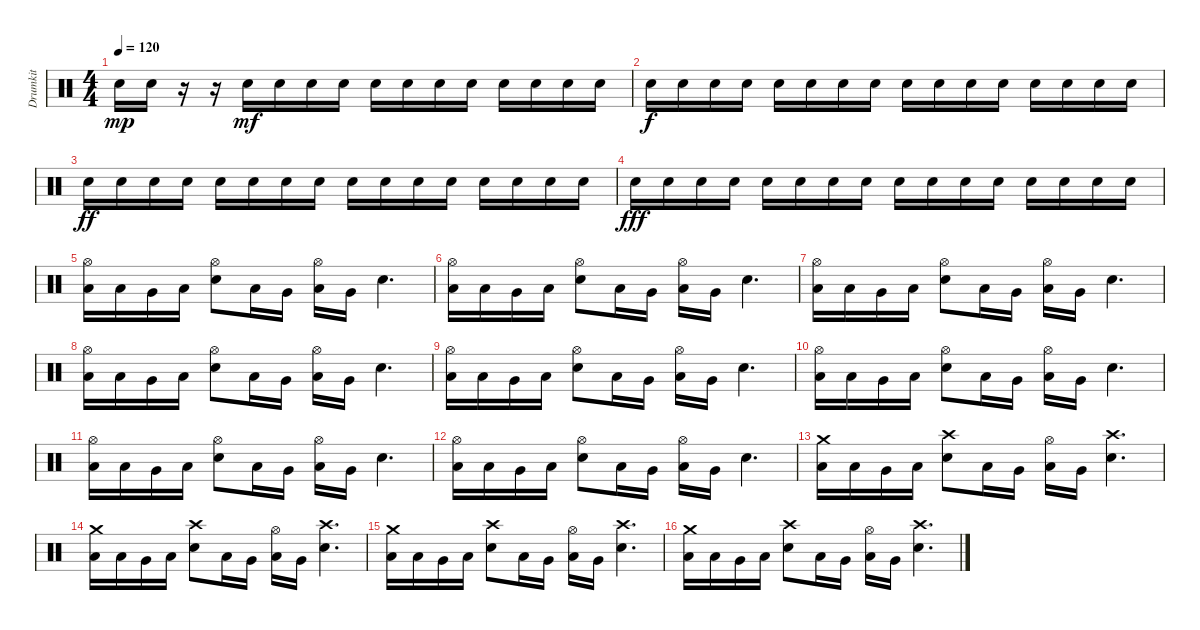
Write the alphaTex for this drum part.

\track ("Drumkit" "Drumkit") {instrument percussion}
\staff {score}
\articulation defaults
\ts (4 4)
\tempo 120
\clef neutral
\ks c "Snare (hit) 2".16{dy mp} "Snare (hit) 2".16
r.16 r.16 "Snare (hit) 2".16{dy mf} "Snare (hit) 2".16 "Snare (hit) 2".16 "Snare (hit) 2".16 "Snare (hit) 2".16 "Snare (hit) 2".16 "Snare (hit) 2".16 "Snare (hit) 2".16 "Snare (hit) 2".16 "Snare (hit) 2".16 "Snare (hit) 2".16 "Snare (hit) 2".16 |
"Snare (hit) 2".16{dy f} "Snare (hit) 2".16 "Snare (hit) 2".16 "Snare (hit) 2".16 "Snare (hit) 2".16 "Snare (hit) 2".16 "Snare (hit) 2".16 "Snare (hit) 2".16 "Snare (hit) 2".16 "Snare (hit) 2".16 "Snare (hit) 2".16 "Snare (hit) 2".16 "Snare (hit) 2".16 "Snare (hit) 2".16 "Snare (hit) 2".16 "Snare (hit) 2".16 |
"Snare (hit) 2".16{dy ff} "Snare (hit) 2".16 "Snare (hit) 2".16 "Snare (hit) 2".16 "Snare (hit) 2".16 "Snare (hit) 2".16 "Snare (hit) 2".16 "Snare (hit) 2".16 "Snare (hit) 2".16 "Snare (hit) 2".16 "Snare (hit) 2".16 "Snare (hit) 2".16 "Snare (hit) 2".16 "Snare (hit) 2".16 "Snare (hit) 2".16 "Snare (hit) 2".16 |
"Snare (hit) 2".16{dy fff} "Snare (hit) 2".16 "Snare (hit) 2".16 "Snare (hit) 2".16 "Snare (hit) 2".16 "Snare (hit) 2".16 "Snare (hit) 2".16 "Snare (hit) 2".16 "Snare (hit) 2".16 "Snare (hit) 2".16 "Snare (hit) 2".16 "Snare (hit) 2".16 "Snare (hit) 2".16 "Snare (hit) 2".16 "Snare (hit) 2".16 "Snare (hit) 2".16 |
("Low Floor Tom (hit)" "Hi-Hat (open)").16 "Low Floor Tom (hit)".16 "Very Low Tom (hit)".16 "Low Floor Tom (hit)".16 ("Snare (hit) 2" "Hi-Hat (open)").8 "Low Floor Tom (hit)".16 "Very Low Tom (hit)".16 ("Low Floor Tom (hit)" "Hi-Hat (open)").16 "Very Low Tom (hit)".16 "Snare (hit) 2".4{d} |
("Low Floor Tom (hit)" "Hi-Hat (open)").16 "Low Floor Tom (hit)".16 "Very Low Tom (hit)".16 "Low Floor Tom (hit)".16 ("Snare (hit) 2" "Hi-Hat (open)").8 "Low Floor Tom (hit)".16 "Very Low Tom (hit)".16 ("Low Floor Tom (hit)" "Hi-Hat (open)").16 "Very Low Tom (hit)".16 "Snare (hit) 2".4{d} |
("Low Floor Tom (hit)" "Hi-Hat (open)").16 "Low Floor Tom (hit)".16 "Very Low Tom (hit)".16 "Low Floor Tom (hit)".16 ("Snare (hit) 2" "Hi-Hat (open)").8 "Low Floor Tom (hit)".16 "Very Low Tom (hit)".16 ("Low Floor Tom (hit)" "Hi-Hat (open)").16 "Very Low Tom (hit)".16 "Snare (hit) 2".4{d} |
("Low Floor Tom (hit)" "Hi-Hat (open)").16 "Low Floor Tom (hit)".16 "Very Low Tom (hit)".16 "Low Floor Tom (hit)".16 ("Snare (hit) 2" "Hi-Hat (open)").8 "Low Floor Tom (hit)".16 "Very Low Tom (hit)".16 ("Low Floor Tom (hit)" "Hi-Hat (open)").16 "Very Low Tom (hit)".16 "Snare (hit) 2".4{d} |
("Low Floor Tom (hit)" "Hi-Hat (open)").16 "Low Floor Tom (hit)".16 "Very Low Tom (hit)".16 "Low Floor Tom (hit)".16 ("Snare (hit) 2" "Hi-Hat (open)").8 "Low Floor Tom (hit)".16 "Very Low Tom (hit)".16 ("Low Floor Tom (hit)" "Hi-Hat (open)").16 "Very Low Tom (hit)".16 "Snare (hit) 2".4{d} |
("Low Floor Tom (hit)" "Hi-Hat (open)").16 "Low Floor Tom (hit)".16 "Very Low Tom (hit)".16 "Low Floor Tom (hit)".16 ("Snare (hit) 2" "Hi-Hat (open)").8 "Low Floor Tom (hit)".16 "Very Low Tom (hit)".16 ("Low Floor Tom (hit)" "Hi-Hat (open)").16 "Very Low Tom (hit)".16 "Snare (hit) 2".4{d} |
("Low Floor Tom (hit)" "Hi-Hat (open)").16 "Low Floor Tom (hit)".16 "Very Low Tom (hit)".16 "Low Floor Tom (hit)".16 ("Snare (hit) 2" "Hi-Hat (open)").8 "Low Floor Tom (hit)".16 "Very Low Tom (hit)".16 ("Low Floor Tom (hit)" "Hi-Hat (open)").16 "Very Low Tom (hit)".16 "Snare (hit) 2".4{d} |
("Low Floor Tom (hit)" "Hi-Hat (open)").16 "Low Floor Tom (hit)".16 "Very Low Tom (hit)".16 "Low Floor Tom (hit)".16 ("Snare (hit) 2" "Hi-Hat (open)").8 "Low Floor Tom (hit)".16 "Very Low Tom (hit)".16 ("Low Floor Tom (hit)" "Hi-Hat (open)").16 "Very Low Tom (hit)".16 "Snare (hit) 2".4{d} |
("Low Floor Tom (hit)" "Crash medium (hit)").16 "Low Floor Tom (hit)".16 "Very Low Tom (hit)".16 "Low Floor Tom (hit)".16 ("Snare (hit) 2" "Crash high (hit)").8 "Low Floor Tom (hit)".16 "Very Low Tom (hit)".16 ("Low Floor Tom (hit)" "Hi-Hat (open)").16 "Very Low Tom (hit)".16 ("Snare (hit) 2" "Crash high (hit)").4{d} |
("Low Floor Tom (hit)" "Crash medium (hit)").16 "Low Floor Tom (hit)".16 "Very Low Tom (hit)".16 "Low Floor Tom (hit)".16 ("Snare (hit) 2" "Crash high (hit)").8 "Low Floor Tom (hit)".16 "Very Low Tom (hit)".16 ("Low Floor Tom (hit)" "Hi-Hat (open)").16 "Very Low Tom (hit)".16 ("Snare (hit) 2" "Crash high (hit)").4{d} |
("Low Floor Tom (hit)" "Crash medium (hit)").16 "Low Floor Tom (hit)".16 "Very Low Tom (hit)".16 "Low Floor Tom (hit)".16 ("Snare (hit) 2" "Crash high (hit)").8 "Low Floor Tom (hit)".16 "Very Low Tom (hit)".16 ("Low Floor Tom (hit)" "Hi-Hat (open)").16 "Very Low Tom (hit)".16 ("Snare (hit) 2" "Crash high (hit)").4{d} |
("Low Floor Tom (hit)" "Crash medium (hit)").16 "Low Floor Tom (hit)".16 "Very Low Tom (hit)".16 "Low Floor Tom (hit)".16 ("Snare (hit) 2" "Crash high (hit)").8 "Low Floor Tom (hit)".16 "Very Low Tom (hit)".16 ("Low Floor Tom (hit)" "Hi-Hat (open)").16 "Very Low Tom (hit)".16 ("Snare (hit) 2" "Crash high (hit)").4{d}
